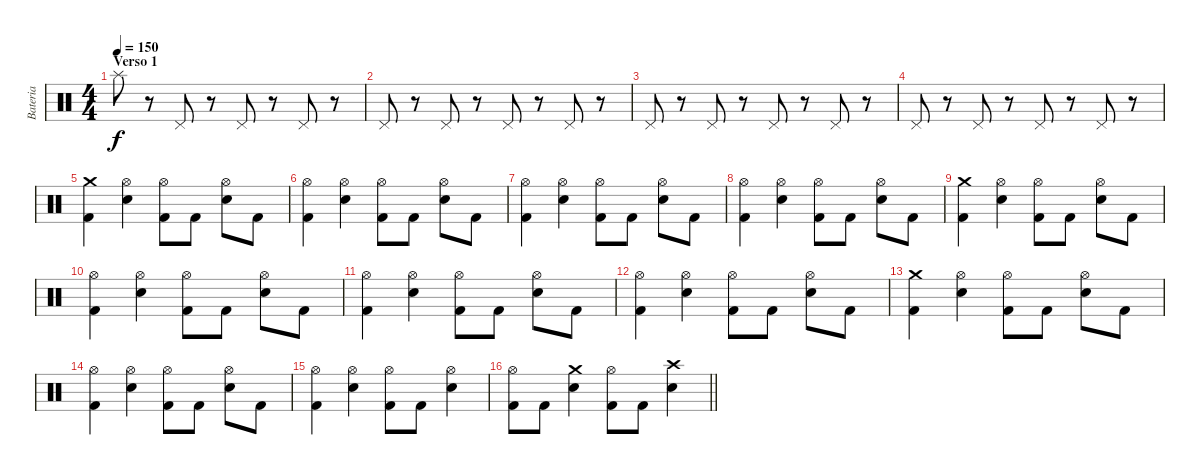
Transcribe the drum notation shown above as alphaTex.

\track ("Bateria" "Bateria") {instrument percussion}
\staff {score}
\articulation defaults
\ts (4 4)
\section ("" "Verso 1")
\tempo 150
\clef neutral
\ks c "Splash (hit)".8{dy f}
r.8 "Pedal Hi-Hat (hit)".8 r.8 "Pedal Hi-Hat (hit)".8 r.8 "Pedal Hi-Hat (hit)".8 r.8 |
"Pedal Hi-Hat (hit)".8 r.8 "Pedal Hi-Hat (hit)".8 r.8 "Pedal Hi-Hat (hit)".8 r.8 "Pedal Hi-Hat (hit)".8 r.8 |
"Pedal Hi-Hat (hit)".8 r.8 "Pedal Hi-Hat (hit)".8 r.8 "Pedal Hi-Hat (hit)".8 r.8 "Pedal Hi-Hat (hit)".8 r.8 |
"Pedal Hi-Hat (hit)".8 r.8 "Pedal Hi-Hat (hit)".8 r.8 "Pedal Hi-Hat (hit)".8 r.8 "Pedal Hi-Hat (hit)".8 r.8 |
("Crash medium (hit)" "Kick (hit) 2").4 ("Hi-Hat (open)" "Snare (hit) 2").4 ("Hi-Hat (open)" "Kick (hit) 2").8 "Kick (hit) 2".8 ("Hi-Hat (open)" "Snare (hit) 2").8 "Kick (hit) 2".8 |
("Hi-Hat (open)" "Kick (hit) 2").4 ("Hi-Hat (open)" "Snare (hit) 2").4 ("Hi-Hat (open)" "Kick (hit) 2").8 "Kick (hit) 2".8 ("Hi-Hat (open)" "Snare (hit) 2").8 "Kick (hit) 2".8 |
("Hi-Hat (open)" "Kick (hit) 2").4 ("Hi-Hat (open)" "Snare (hit) 2").4 ("Hi-Hat (open)" "Kick (hit) 2").8 "Kick (hit) 2".8 ("Hi-Hat (open)" "Snare (hit) 2").8 "Kick (hit) 2".8 |
("Hi-Hat (open)" "Kick (hit) 2").4 ("Hi-Hat (open)" "Snare (hit) 2").4 ("Hi-Hat (open)" "Kick (hit) 2").8 "Kick (hit) 2".8 ("Hi-Hat (open)" "Snare (hit) 2").8 "Kick (hit) 2".8 |
("Crash medium (hit)" "Kick (hit) 2").4 ("Hi-Hat (open)" "Snare (hit) 2").4 ("Hi-Hat (open)" "Kick (hit) 2").8 "Kick (hit) 2".8 ("Hi-Hat (open)" "Snare (hit) 2").8 "Kick (hit) 2".8 |
("Hi-Hat (open)" "Kick (hit) 2").4 ("Hi-Hat (open)" "Snare (hit) 2").4 ("Hi-Hat (open)" "Kick (hit) 2").8 "Kick (hit) 2".8 ("Hi-Hat (open)" "Snare (hit) 2").8 "Kick (hit) 2".8 |
("Hi-Hat (open)" "Kick (hit) 2").4 ("Hi-Hat (open)" "Snare (hit) 2").4 ("Hi-Hat (open)" "Kick (hit) 2").8 "Kick (hit) 2".8 ("Hi-Hat (open)" "Snare (hit) 2").8 "Kick (hit) 2".8 |
("Hi-Hat (open)" "Kick (hit) 2").4 ("Hi-Hat (open)" "Snare (hit) 2").4 ("Hi-Hat (open)" "Kick (hit) 2").8 "Kick (hit) 2".8 ("Hi-Hat (open)" "Snare (hit) 2").8 "Kick (hit) 2".8 |
("Crash medium (hit)" "Kick (hit) 2").4 ("Hi-Hat (open)" "Snare (hit) 2").4 ("Hi-Hat (open)" "Kick (hit) 2").8 "Kick (hit) 2".8 ("Hi-Hat (open)" "Snare (hit) 2").8 "Kick (hit) 2".8 |
("Hi-Hat (open)" "Kick (hit) 2").4 ("Hi-Hat (open)" "Snare (hit) 2").4 ("Hi-Hat (open)" "Kick (hit) 2").8 "Kick (hit) 2".8 ("Hi-Hat (open)" "Snare (hit) 2").8 "Kick (hit) 2".8 |
("Hi-Hat (open)" "Kick (hit) 2").4 ("Hi-Hat (open)" "Snare (hit) 2").4 ("Hi-Hat (open)" "Kick (hit) 2").8 "Kick (hit) 2".8 ("Hi-Hat (open)" "Snare (hit) 2").4 |
\barLineRight lightlight
("Hi-Hat (open)" "Kick (hit) 2").8 "Kick (hit) 2".8 ("Crash medium (hit)" "Snare (hit) 2").4 ("Hi-Hat (open)" "Kick (hit) 2").8 "Kick (hit) 2".8 ("Crash high (hit)" "Snare (hit) 2").4
